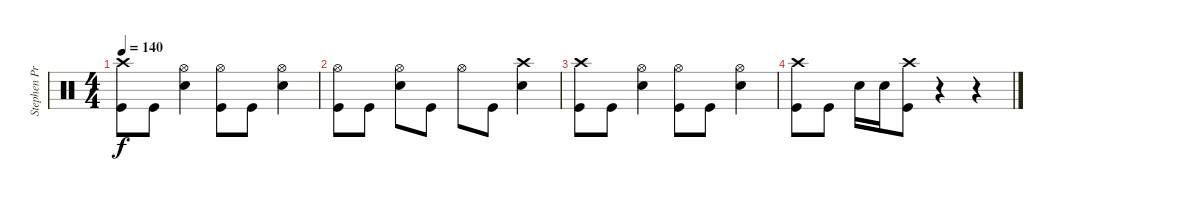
\track ("Stephen Priestly-Drums" "Stephen Pr") {instrument percussion}
\staff {score}
\articulation defaults
\ts (4 4)
\tempo 140
\clef neutral
\ks c
("Crash high (hit)" "Kick (hit)").8{dy f} "Kick (hit)".8 ("Hi-Hat (open)" "Snare (hit) 2").4 ("Hi-Hat (open)" "Kick (hit)").8 "Kick (hit)".8 ("Hi-Hat (open)" "Snare (hit) 2").4 |
("Hi-Hat (open)" "Kick (hit)").8 "Kick (hit)".8 ("Hi-Hat (open)" "Snare (hit) 2").8 "Kick (hit)".8 "Hi-Hat (open)".8 "Kick (hit)".8 ("Crash high (hit)" "Snare (hit) 2").4 |
("Crash high (hit)" "Kick (hit)").8 "Kick (hit)".8 ("Hi-Hat (open)" "Snare (hit) 2").4 ("Hi-Hat (open)" "Kick (hit)").8 "Kick (hit)".8 ("Hi-Hat (open)" "Snare (hit) 2").4 |
("Crash high (hit)" "Kick (hit)").8 "Kick (hit)".8 "Snare (hit) 2".16 "Snare (hit) 2".16 ("Crash high (hit)" "Kick (hit)").8 r.4 r.4
